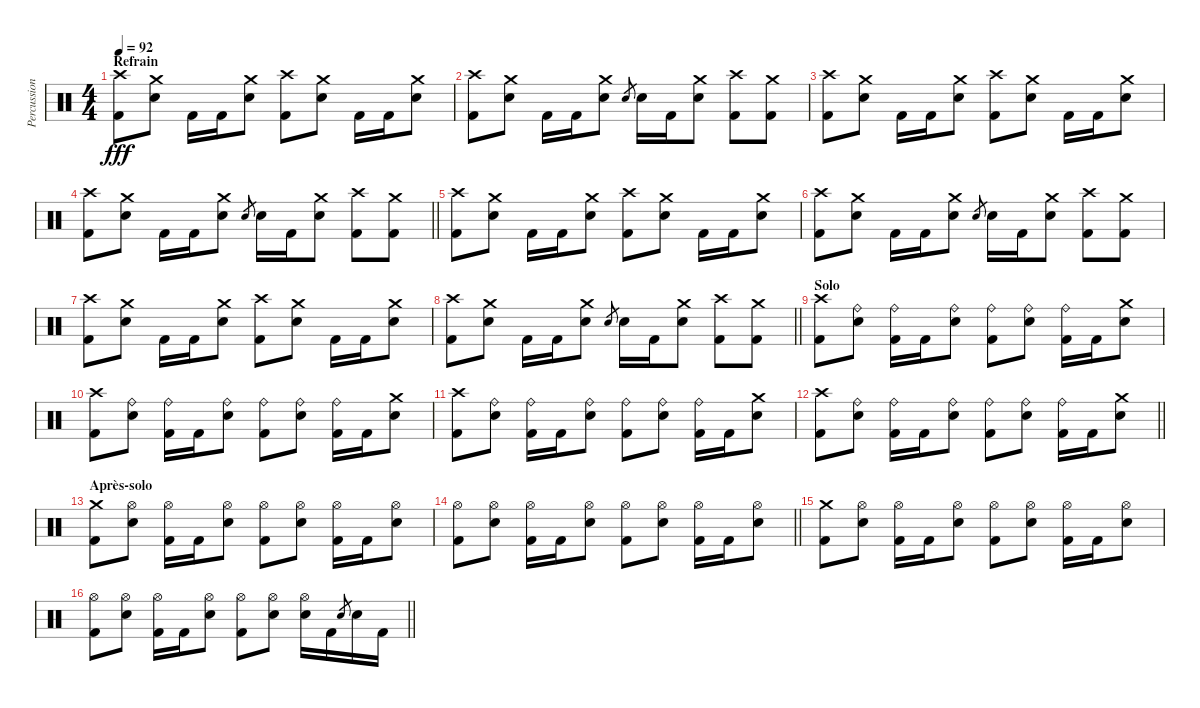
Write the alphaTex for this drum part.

\track ("Percussions" "Percussion") {instrument percussion}
\staff {score}
\articulation defaults
\ts (4 4)
\section ("" "Refrain")
\tempo 92
\clef neutral
\ks c
("Crash high (hit)" "Kick (hit) 2").8{dy fff} ("Crash medium (hit)" "Electric Snare (hit)").8 "Kick (hit) 2".16 "Kick (hit) 2".16 ("Crash medium (hit)" "Electric Snare (hit)").8 ("Crash high (hit)" "Kick (hit) 2").8 ("Crash medium (hit)" "Electric Snare (hit)").8 "Kick (hit) 2".16 "Kick (hit) 2".16 ("Crash medium (hit)" "Electric Snare (hit)").8 |
("Crash high (hit)" "Kick (hit) 2").8 ("Crash medium (hit)" "Electric Snare (hit)").8 "Kick (hit) 2".16 "Kick (hit) 2".16 ("Crash medium (hit)" "Electric Snare (hit)").8 "Electric Snare (hit)".8{gr} "Electric Snare (hit)".16 "Kick (hit) 2".16 ("Crash medium (hit)" "Electric Snare (hit)").8 ("Crash high (hit)" "Kick (hit) 2").8 ("Crash medium (hit)" "Kick (hit) 2").8 |
("Crash high (hit)" "Kick (hit) 2").8 ("Crash medium (hit)" "Electric Snare (hit)").8 "Kick (hit) 2".16 "Kick (hit) 2".16 ("Crash medium (hit)" "Electric Snare (hit)").8 ("Crash high (hit)" "Kick (hit) 2").8 ("Crash medium (hit)" "Electric Snare (hit)").8 "Kick (hit) 2".16 "Kick (hit) 2".16 ("Crash medium (hit)" "Electric Snare (hit)").8 |
\barLineRight lightlight
("Crash high (hit)" "Kick (hit) 2").8 ("Crash medium (hit)" "Electric Snare (hit)").8 "Kick (hit) 2".16 "Kick (hit) 2".16 ("Crash medium (hit)" "Electric Snare (hit)").8 "Electric Snare (hit)".8{gr} "Electric Snare (hit)".16 "Kick (hit) 2".16 ("Crash medium (hit)" "Electric Snare (hit)").8 ("Crash high (hit)" "Kick (hit) 2").8 ("Crash medium (hit)" "Kick (hit) 2").8 |
("Crash high (hit)" "Kick (hit) 2").8 ("Crash medium (hit)" "Electric Snare (hit)").8 "Kick (hit) 2".16 "Kick (hit) 2".16 ("Crash medium (hit)" "Electric Snare (hit)").8 ("Crash high (hit)" "Kick (hit) 2").8 ("Crash medium (hit)" "Electric Snare (hit)").8 "Kick (hit) 2".16 "Kick (hit) 2".16 ("Crash medium (hit)" "Electric Snare (hit)").8 |
("Crash high (hit)" "Kick (hit) 2").8 ("Crash medium (hit)" "Electric Snare (hit)").8 "Kick (hit) 2".16 "Kick (hit) 2".16 ("Crash medium (hit)" "Electric Snare (hit)").8 "Electric Snare (hit)".8{gr} "Electric Snare (hit)".16 "Kick (hit) 2".16 ("Crash medium (hit)" "Electric Snare (hit)").8 ("Crash high (hit)" "Kick (hit) 2").8 ("Crash medium (hit)" "Kick (hit) 2").8 |
("Crash high (hit)" "Kick (hit) 2").8 ("Crash medium (hit)" "Electric Snare (hit)").8 "Kick (hit) 2".16 "Kick (hit) 2".16 ("Crash medium (hit)" "Electric Snare (hit)").8 ("Crash high (hit)" "Kick (hit) 2").8 ("Crash medium (hit)" "Electric Snare (hit)").8 "Kick (hit) 2".16 "Kick (hit) 2".16 ("Crash medium (hit)" "Electric Snare (hit)").8 |
\barLineRight lightlight
("Crash high (hit)" "Kick (hit) 2").8 ("Crash medium (hit)" "Electric Snare (hit)").8 "Kick (hit) 2".16 "Kick (hit) 2".16 ("Crash medium (hit)" "Electric Snare (hit)").8 "Electric Snare (hit)".8{gr} "Electric Snare (hit)".16 "Kick (hit) 2".16 ("Crash medium (hit)" "Electric Snare (hit)").8 ("Crash high (hit)" "Kick (hit) 2").8 ("Crash medium (hit)" "Kick (hit) 2").8 |
\section ("" "Solo")
("Crash high (hit)" "Kick (hit) 2").8 ("Ride (bell)" "Electric Snare (hit)").8 ("Ride (bell)" "Kick (hit) 2").16 "Kick (hit) 2".16 ("Ride (bell)" "Electric Snare (hit)").8 ("Ride (bell)" "Kick (hit) 2").8 ("Ride (bell)" "Electric Snare (hit)").8 ("Ride (bell)" "Kick (hit) 2").16 "Kick (hit) 2".16 ("Crash medium (hit)" "Electric Snare (hit)").8 |
("Crash high (hit)" "Kick (hit) 2").8 ("Ride (bell)" "Electric Snare (hit)").8 ("Ride (bell)" "Kick (hit) 2").16 "Kick (hit) 2".16 ("Ride (bell)" "Electric Snare (hit)").8 ("Ride (bell)" "Kick (hit) 2").8 ("Ride (bell)" "Electric Snare (hit)").8 ("Ride (bell)" "Kick (hit) 2").16 "Kick (hit) 2".16 ("Crash medium (hit)" "Electric Snare (hit)").8 |
("Crash high (hit)" "Kick (hit) 2").8 ("Ride (bell)" "Electric Snare (hit)").8 ("Ride (bell)" "Kick (hit) 2").16 "Kick (hit) 2".16 ("Ride (bell)" "Electric Snare (hit)").8 ("Ride (bell)" "Kick (hit) 2").8 ("Ride (bell)" "Electric Snare (hit)").8 ("Ride (bell)" "Kick (hit) 2").16 "Kick (hit) 2".16 ("Crash medium (hit)" "Electric Snare (hit)").8 |
\barLineRight lightlight
("Crash high (hit)" "Kick (hit) 2").8 ("Ride (bell)" "Electric Snare (hit)").8 ("Ride (bell)" "Kick (hit) 2").16 "Kick (hit) 2".16 ("Ride (bell)" "Electric Snare (hit)").8 ("Ride (bell)" "Kick (hit) 2").8 ("Ride (bell)" "Electric Snare (hit)").8 ("Ride (bell)" "Kick (hit) 2").16 "Kick (hit) 2".16 ("Crash medium (hit)" "Electric Snare (hit)").8 |
\section ("" "Après-solo")
("Crash medium (hit)" "Kick (hit) 2").8 ("Hi-Hat (open)" "Electric Snare (hit)").8 ("Hi-Hat (open)" "Kick (hit) 2").16 "Kick (hit) 2".16 ("Hi-Hat (open)" "Electric Snare (hit)").8 ("Hi-Hat (open)" "Kick (hit) 2").8 ("Hi-Hat (open)" "Electric Snare (hit)").8 ("Hi-Hat (open)" "Kick (hit) 2").16 "Kick (hit) 2".16 ("Hi-Hat (open)" "Electric Snare (hit)").8 |
\barLineRight lightlight
("Hi-Hat (open)" "Kick (hit) 2").8 ("Hi-Hat (open)" "Electric Snare (hit)").8 ("Hi-Hat (open)" "Kick (hit) 2").16 "Kick (hit) 2".16 ("Hi-Hat (open)" "Electric Snare (hit)").8 ("Hi-Hat (open)" "Kick (hit) 2").8 ("Hi-Hat (open)" "Electric Snare (hit)").8 ("Hi-Hat (open)" "Kick (hit) 2").16 "Kick (hit) 2".16 ("Hi-Hat (open)" "Electric Snare (hit)").8 |
("Crash medium (hit)" "Kick (hit) 2").8 ("Hi-Hat (open)" "Electric Snare (hit)").8 ("Hi-Hat (open)" "Kick (hit) 2").16 "Kick (hit) 2".16 ("Hi-Hat (open)" "Electric Snare (hit)").8 ("Hi-Hat (open)" "Kick (hit) 2").8 ("Hi-Hat (open)" "Electric Snare (hit)").8 ("Hi-Hat (open)" "Kick (hit) 2").16 "Kick (hit) 2".16 ("Hi-Hat (open)" "Electric Snare (hit)").8 |
\barLineRight lightlight
("Hi-Hat (open)" "Kick (hit) 2").8 ("Hi-Hat (open)" "Electric Snare (hit)").8 ("Hi-Hat (open)" "Kick (hit) 2").16 "Kick (hit) 2".16 ("Hi-Hat (open)" "Electric Snare (hit)").8 ("Hi-Hat (open)" "Kick (hit) 2").8 ("Hi-Hat (open)" "Electric Snare (hit)").8 ("Hi-Hat (open)" "Electric Snare (hit)").16 "Kick (hit) 2".16 "Electric Snare (hit)".8{gr} "Electric Snare (hit)".16 "Kick (hit) 2".16
